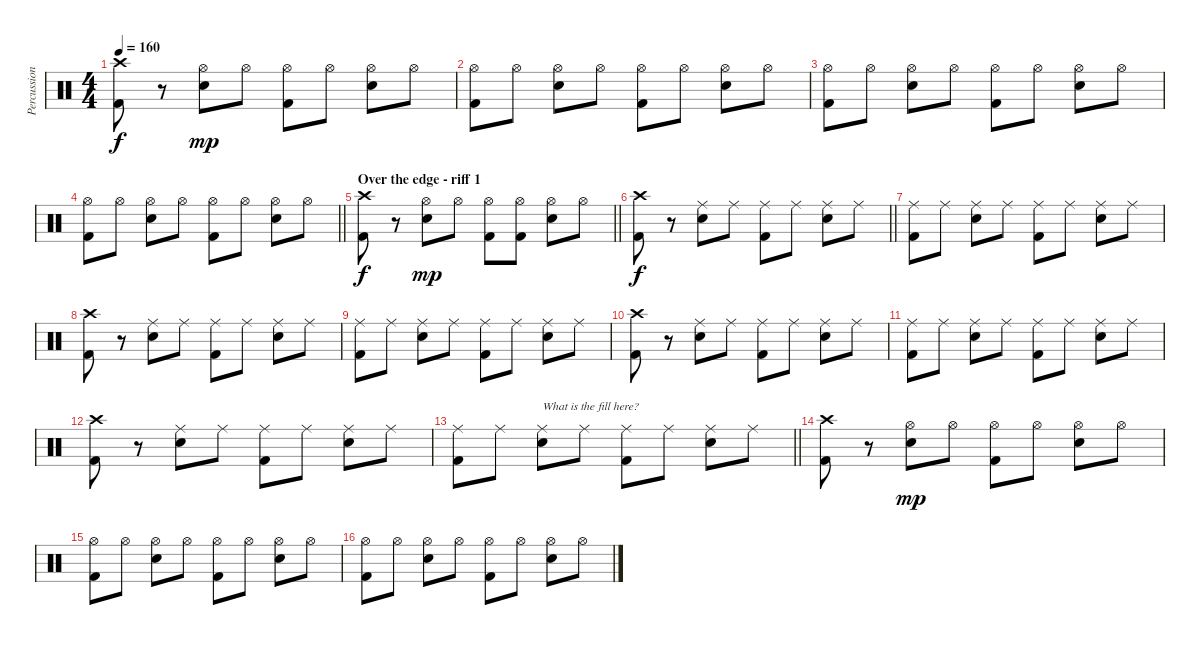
\track ("Percussion - live 1983" "Percussion") {mute instrument percussion}
\staff {score}
\articulation defaults
\ts (4 4)
\tempo 160
\clef neutral
\ks c
("Crash high (hit)" "Kick (hit) 2").8{dy f} r.8 ("Hi-Hat (open)" "Snare (hit) 2").8{dy mp} "Hi-Hat (open)".8 ("Hi-Hat (open)" "Kick (hit) 2").8 "Hi-Hat (open)".8 ("Hi-Hat (open)" "Snare (hit) 2").8 "Hi-Hat (open)".8 |
("Hi-Hat (open)" "Kick (hit) 2").8 "Hi-Hat (open)".8 ("Hi-Hat (open)" "Snare (hit) 2").8 "Hi-Hat (open)".8 ("Hi-Hat (open)" "Kick (hit) 2").8 "Hi-Hat (open)".8 ("Hi-Hat (open)" "Snare (hit) 2").8 "Hi-Hat (open)".8 |
("Hi-Hat (open)" "Kick (hit) 2").8 "Hi-Hat (open)".8 ("Hi-Hat (open)" "Snare (hit) 2").8 "Hi-Hat (open)".8 ("Hi-Hat (open)" "Kick (hit) 2").8 "Hi-Hat (open)".8 ("Hi-Hat (open)" "Snare (hit) 2").8 "Hi-Hat (open)".8 |
\barLineRight lightlight
("Hi-Hat (open)" "Kick (hit) 2").8 "Hi-Hat (open)".8 ("Hi-Hat (open)" "Snare (hit) 2").8 "Hi-Hat (open)".8 ("Hi-Hat (open)" "Kick (hit) 2").8 "Hi-Hat (open)".8 ("Hi-Hat (open)" "Snare (hit) 2").8 "Hi-Hat (open)".8 |
\section ("" "Over the edge - riff 1")
\barLineRight lightlight
("Crash high (hit)" "Kick (hit) 2").8{dy f} r.8 ("Hi-Hat (open)" "Snare (hit) 2").8{dy mp} "Hi-Hat (open)".8 ("Hi-Hat (open)" "Kick (hit) 2").8 ("Hi-Hat (open)" "Kick (hit) 2").8 ("Hi-Hat (open)" "Snare (hit) 2").8 "Hi-Hat (open)".8 |
\barLineRight lightlight
("Crash high (hit)" "Kick (hit) 2").8{dy f} r.8 ("Ride (middle)" "Snare (hit) 2").8 "Ride (middle)".8 ("Ride (middle)" "Kick (hit) 2").8 "Ride (middle)".8 ("Ride (middle)" "Snare (hit) 2").8 "Ride (middle)".8 |
("Ride (middle)" "Kick (hit) 2").8 "Ride (middle)".8 ("Ride (middle)" "Snare (hit) 2").8 "Ride (middle)".8 ("Ride (middle)" "Kick (hit) 2").8 "Ride (middle)".8 ("Ride (middle)" "Snare (hit) 2").8 "Ride (middle)".8 |
("Crash high (hit)" "Kick (hit) 2").8 r.8 ("Ride (middle)" "Snare (hit) 2").8 "Ride (middle)".8 ("Ride (middle)" "Kick (hit) 2").8 "Ride (middle)".8 ("Ride (middle)" "Snare (hit) 2").8 "Ride (middle)".8 |
("Ride (middle)" "Kick (hit) 2").8 "Ride (middle)".8 ("Ride (middle)" "Snare (hit) 2").8 "Ride (middle)".8 ("Ride (middle)" "Kick (hit) 2").8 "Ride (middle)".8 ("Ride (middle)" "Snare (hit) 2").8 "Ride (middle)".8 |
("Crash high (hit)" "Kick (hit) 2").8 r.8 ("Ride (middle)" "Snare (hit) 2").8 "Ride (middle)".8 ("Ride (middle)" "Kick (hit) 2").8 "Ride (middle)".8 ("Ride (middle)" "Snare (hit) 2").8 "Ride (middle)".8 |
("Ride (middle)" "Kick (hit) 2").8 "Ride (middle)".8 ("Ride (middle)" "Snare (hit) 2").8 "Ride (middle)".8 ("Ride (middle)" "Kick (hit) 2").8 "Ride (middle)".8 ("Ride (middle)" "Snare (hit) 2").8 "Ride (middle)".8 |
("Crash high (hit)" "Kick (hit) 2").8 r.8 ("Ride (middle)" "Snare (hit) 2").8 "Ride (middle)".8 ("Ride (middle)" "Kick (hit) 2").8 "Ride (middle)".8 ("Ride (middle)" "Snare (hit) 2").8 "Ride (middle)".8 |
\barLineRight lightlight
("Ride (middle)" "Kick (hit) 2").8 "Ride (middle)".8 ("Ride (middle)" "Snare (hit) 2").8{txt "What is the fill here?"} "Ride (middle)".8 ("Ride (middle)" "Kick (hit) 2").8 "Ride (middle)".8 ("Ride (middle)" "Snare (hit) 2").8 "Ride (middle)".8 |
("Crash high (hit)" "Kick (hit) 2").8 r.8 ("Hi-Hat (open)" "Snare (hit) 2").8{dy mp} "Hi-Hat (open)".8 ("Hi-Hat (open)" "Kick (hit) 2").8 "Hi-Hat (open)".8 ("Hi-Hat (open)" "Snare (hit) 2").8 "Hi-Hat (open)".8 |
("Hi-Hat (open)" "Kick (hit) 2").8 "Hi-Hat (open)".8 ("Hi-Hat (open)" "Snare (hit) 2").8 "Hi-Hat (open)".8 ("Hi-Hat (open)" "Kick (hit) 2").8 "Hi-Hat (open)".8 ("Hi-Hat (open)" "Snare (hit) 2").8 "Hi-Hat (open)".8 |
("Hi-Hat (open)" "Kick (hit) 2").8 "Hi-Hat (open)".8 ("Hi-Hat (open)" "Snare (hit) 2").8 "Hi-Hat (open)".8 ("Hi-Hat (open)" "Kick (hit) 2").8 "Hi-Hat (open)".8 ("Hi-Hat (open)" "Snare (hit) 2").8 "Hi-Hat (open)".8
